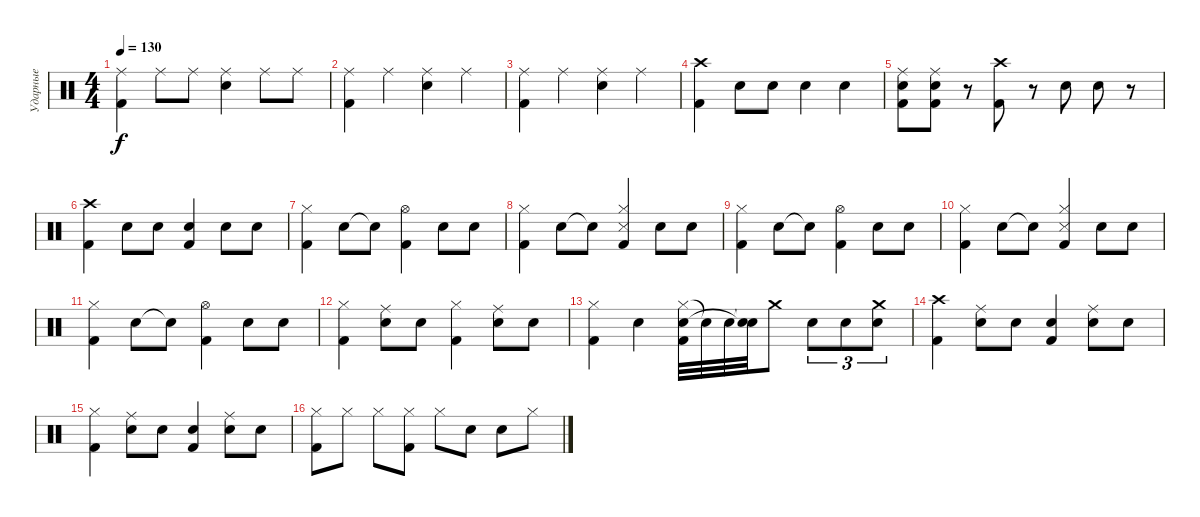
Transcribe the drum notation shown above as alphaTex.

\track ("Ударные" "Ударные") {instrument percussion}
\staff {score}
\articulation defaults
\ts (4 4)
\tempo 130
\clef neutral
\ks c
("Ride (middle)" "Kick (hit) 2").4{dy f} "Ride (middle)".8 "Ride (middle)".8 ("Ride (middle)" "Snare (hit) 2").4 "Ride (middle)".8 "Ride (middle)".8 |
("Ride (middle)" "Kick (hit) 2").4 "Ride (middle)".4 ("Ride (middle)" "Snare (hit) 2").4 "Ride (middle)".4 |
("Ride (middle)" "Kick (hit) 2").4 "Ride (middle)".4 ("Ride (middle)" "Snare (hit) 2").4 "Ride (middle)".4 |
("Crash high (hit)" "Kick (hit) 2").4 "Snare (hit) 2".8 "Snare (hit) 2".8 "Snare (hit) 2".4 "Snare (hit) 2".4 |
("Ride (middle)" "Snare (hit) 2" "Kick (hit) 2").8 ("Ride (middle)" "Snare (hit) 2" "Kick (hit) 2").8 r.8 ("Crash high (hit)" "Kick (hit) 2").8 r.8 "Snare (hit) 2".8 "Snare (hit) 2".8 r.8 |
("Crash high (hit)" "Kick (hit) 2").4 "Snare (hit) 2".8 "Snare (hit) 2".8 ("Snare (hit) 2" "Kick (hit) 2").4 "Snare (hit) 2".8 "Snare (hit) 2".8 |
("Hi-Hat (closed)" "Kick (hit) 2").4 "Snare (hit) 2".8 "Snare (hit) 2"{t}.8 ("Hi-Hat (open)" "Kick (hit) 2").4 "Snare (hit) 2".8 "Snare (hit) 2".8 |
("Hi-Hat (closed)" "Kick (hit) 2").4 "Snare (hit) 2".8 "Snare (hit) 2"{t}.8 ("Hi-Hat (closed)" "Snare (side stick) 3" "Kick (hit) 2").4 "Snare (hit) 2".8 "Snare (hit) 2".8 |
("Hi-Hat (closed)" "Kick (hit) 2").4 "Snare (hit) 2".8 "Snare (hit) 2"{t}.8 ("Hi-Hat (open)" "Kick (hit) 2").4 "Snare (hit) 2".8 "Snare (hit) 2".8 |
("Hi-Hat (closed)" "Kick (hit) 2").4 "Snare (hit) 2".8 "Snare (hit) 2"{t}.8 ("Hi-Hat (closed)" "Snare (side stick) 3" "Kick (hit) 2").4 "Snare (hit) 2".8 "Snare (hit) 2".8 |
("Hi-Hat (closed)" "Kick (hit) 2").4 "Snare (hit) 2".8 "Snare (hit) 2"{t}.8 ("Hi-Hat (open)" "Kick (hit) 2").4 "Snare (hit) 2".8 "Snare (hit) 2".8 |
("Hi-Hat (closed)" "Kick (hit) 2").4 ("Ride (middle)" "Snare (hit) 2").8 "Snare (hit) 2".8 ("Hi-Hat (closed)" "Kick (hit) 2").4 ("Ride (middle)" "Snare (hit) 2").8 "Snare (hit) 2".8 |
("Hi-Hat (closed)" "Kick (hit) 2").4 "Snare (hit) 2".4 ("Hi-Hat (closed)" "Snare (hit) 2" "Kick (hit) 2").32 "Snare (hit) 2"{t}.32 "Snare (hit) 2".32 ("Snare (hit) 2"{t} "Snare (hit)"{t}).32 "Crash medium (hit)".8 "Snare (hit) 2".8{tu (3 2)} "Snare (hit) 2".8{tu (3 2)} ("Crash medium (hit)" "Snare (hit) 2").8{tu (3 2)} |
("Crash high (hit)" "Kick (hit) 2").4 ("Ride (middle)" "Snare (hit) 2").8 "Snare (hit) 2".8 ("Snare (hit) 2" "Kick (hit) 2").4 ("Ride (middle)" "Snare (hit) 2").8 "Snare (hit) 2".8 |
("Hi-Hat (closed)" "Kick (hit) 2").4 ("Ride (middle)" "Snare (hit) 2").8 "Snare (hit) 2".8 ("Snare (hit) 2" "Kick (hit) 2").4 ("Ride (middle)" "Snare (hit) 2").8 "Snare (hit) 2".8 |
("Hi-Hat (closed)" "Kick (hit) 2").8 "Hi-Hat (closed)".8 "Hi-Hat (closed)".8 ("Hi-Hat (closed)" "Kick (hit) 2").8 "Hi-Hat (closed)".8 "Snare (hit) 2".8 "Snare (hit) 2".8 "Hi-Hat (closed)".8
